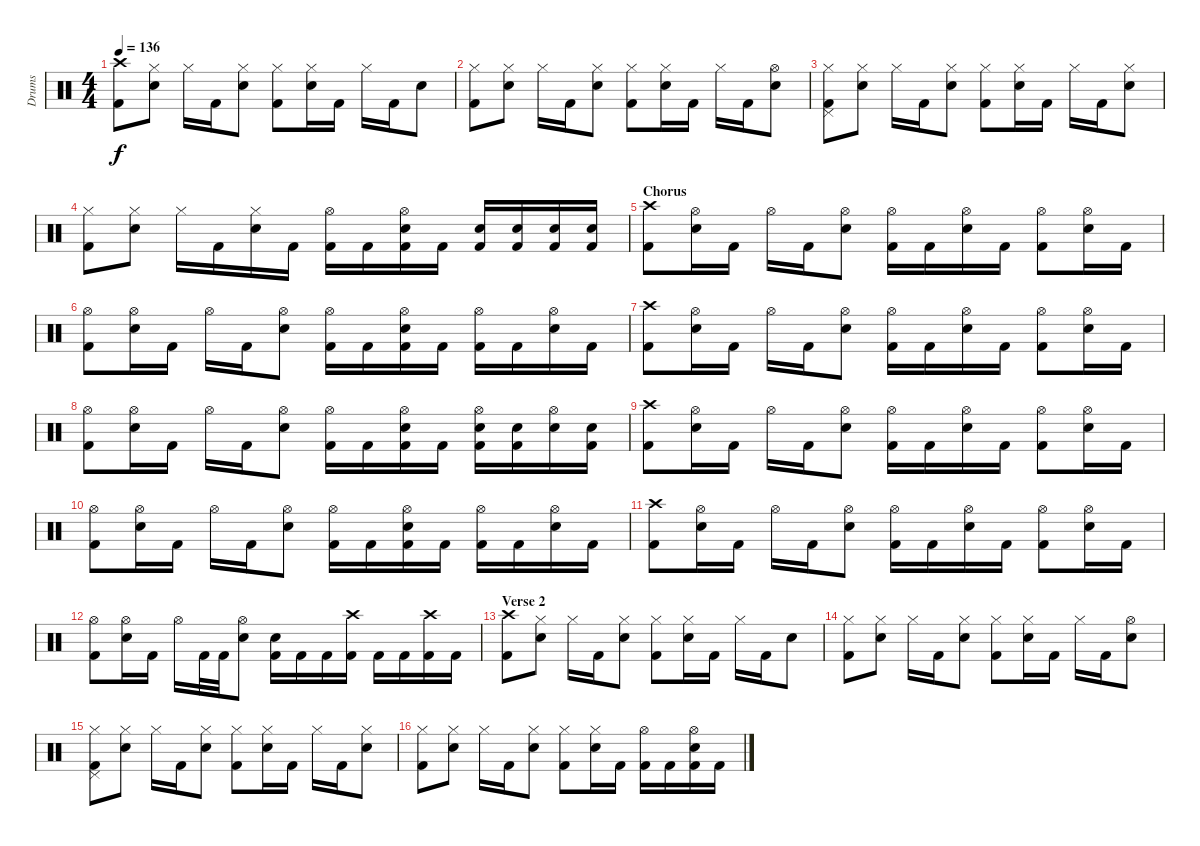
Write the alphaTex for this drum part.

\track ("Drums" "Drums") {instrument percussion}
\staff {score}
\articulation defaults
\ts (4 4)
\tempo 136
\clef neutral
\ks c
("Crash high (hit)" "Kick (hit) 2").8{dy f} ("Hi-Hat (closed)" "Snare (hit) 2").8 "Hi-Hat (closed)".16 "Kick (hit) 2".16 ("Hi-Hat (closed)" "Snare (hit) 2").8 ("Hi-Hat (closed)" "Kick (hit) 2").8 ("Hi-Hat (closed)" "Snare (hit) 2").16 "Kick (hit) 2".16 "Hi-Hat (closed)".16 "Kick (hit) 2".16 "Snare (hit) 2".8 |
("Hi-Hat (closed)" "Kick (hit) 2").8 ("Hi-Hat (closed)" "Snare (hit) 2").8 "Hi-Hat (closed)".16 "Kick (hit) 2".16 ("Hi-Hat (closed)" "Snare (hit) 2").8 ("Hi-Hat (closed)" "Kick (hit) 2").8 ("Hi-Hat (closed)" "Snare (hit) 2").16 "Kick (hit) 2".16 "Hi-Hat (closed)".16 "Kick (hit) 2".16 ("Hi-Hat (open)" "Snare (hit) 2").8 |
("Hi-Hat (closed)" "Pedal Hi-Hat (hit)" "Kick (hit) 2").8 ("Hi-Hat (closed)" "Snare (hit) 2").8 "Hi-Hat (closed)".16 "Kick (hit) 2".16 ("Hi-Hat (closed)" "Snare (hit) 2").8 ("Hi-Hat (closed)" "Kick (hit) 2").8 ("Hi-Hat (closed)" "Snare (hit) 2").16 "Kick (hit) 2".16 "Hi-Hat (closed)".16 "Kick (hit) 2".16 ("Hi-Hat (closed)" "Snare (hit) 2").8 |
("Hi-Hat (closed)" "Kick (hit) 2").8 ("Hi-Hat (closed)" "Snare (hit) 2").8 "Hi-Hat (closed)".16 "Kick (hit) 2".16 ("Hi-Hat (closed)" "Snare (hit) 2").16 "Kick (hit) 2".16 ("Hi-Hat (open)" "Kick (hit) 2").16 "Kick (hit) 2".16 ("Hi-Hat (open)" "Snare (hit) 2" "Kick (hit) 2").16 "Kick (hit) 2".16 ("Snare (hit) 2" "Kick (hit) 2").16 ("Snare (hit) 2" "Kick (hit) 2").16 ("Snare (hit) 2" "Kick (hit) 2").16 ("Snare (hit) 2" "Kick (hit) 2").16 |
\section ("" "Chorus")
("Crash high (hit)" "Kick (hit) 2").8 ("Hi-Hat (open)" "Snare (hit) 2").16 "Kick (hit) 2".16 "Hi-Hat (open)".16 "Kick (hit) 2".16 ("Hi-Hat (open)" "Snare (hit) 2").8 ("Hi-Hat (open)" "Kick (hit) 2").16 "Kick (hit) 2".16 ("Hi-Hat (open)" "Snare (hit) 2").16 "Kick (hit) 2".16 ("Hi-Hat (open)" "Kick (hit) 2").8 ("Hi-Hat (open)" "Snare (hit) 2").16 "Kick (hit) 2".16 |
("Hi-Hat (open)" "Kick (hit) 2").8 ("Hi-Hat (open)" "Snare (hit) 2").16 "Kick (hit) 2".16 "Hi-Hat (open)".16 "Kick (hit) 2".16 ("Hi-Hat (open)" "Snare (hit) 2").8 ("Hi-Hat (open)" "Kick (hit) 2").16 "Kick (hit) 2".16 ("Hi-Hat (open)" "Snare (hit) 2" "Kick (hit) 2").16 "Kick (hit) 2".16 ("Hi-Hat (open)" "Kick (hit) 2").16 "Kick (hit) 2".16 ("Hi-Hat (open)" "Snare (hit) 2").16 "Kick (hit) 2".16 |
("Crash high (hit)" "Kick (hit) 2").8 ("Hi-Hat (open)" "Snare (hit) 2").16 "Kick (hit) 2".16 "Hi-Hat (open)".16 "Kick (hit) 2".16 ("Hi-Hat (open)" "Snare (hit) 2").8 ("Hi-Hat (open)" "Kick (hit) 2").16 "Kick (hit) 2".16 ("Hi-Hat (open)" "Snare (hit) 2").16 "Kick (hit) 2".16 ("Hi-Hat (open)" "Kick (hit) 2").8 ("Hi-Hat (open)" "Snare (hit) 2").16 "Kick (hit) 2".16 |
("Hi-Hat (open)" "Kick (hit) 2").8 ("Hi-Hat (open)" "Snare (hit) 2").16 "Kick (hit) 2".16 "Hi-Hat (open)".16 "Kick (hit) 2".16 ("Hi-Hat (open)" "Snare (hit) 2").8 ("Hi-Hat (open)" "Kick (hit) 2").16 "Kick (hit) 2".16 ("Hi-Hat (open)" "Snare (hit) 2" "Kick (hit) 2").16 "Kick (hit) 2".16 ("Hi-Hat (open)" "Snare (hit) 2" "Kick (hit) 2").16 ("Snare (hit) 2" "Kick (hit) 2").16 ("Hi-Hat (open)" "Snare (hit) 2").16 ("Snare (hit) 2" "Kick (hit) 2").16 |
("Crash high (hit)" "Kick (hit) 2").8 ("Hi-Hat (open)" "Snare (hit) 2").16 "Kick (hit) 2".16 "Hi-Hat (open)".16 "Kick (hit) 2".16 ("Hi-Hat (open)" "Snare (hit) 2").8 ("Hi-Hat (open)" "Kick (hit) 2").16 "Kick (hit) 2".16 ("Hi-Hat (open)" "Snare (hit) 2").16 "Kick (hit) 2".16 ("Hi-Hat (open)" "Kick (hit) 2").8 ("Hi-Hat (open)" "Snare (hit) 2").16 "Kick (hit) 2".16 |
("Hi-Hat (open)" "Kick (hit) 2").8 ("Hi-Hat (open)" "Snare (hit) 2").16 "Kick (hit) 2".16 "Hi-Hat (open)".16 "Kick (hit) 2".16 ("Hi-Hat (open)" "Snare (hit) 2").8 ("Hi-Hat (open)" "Kick (hit) 2").16 "Kick (hit) 2".16 ("Hi-Hat (open)" "Snare (hit) 2" "Kick (hit) 2").16 "Kick (hit) 2".16 ("Hi-Hat (open)" "Kick (hit) 2").16 "Kick (hit) 2".16 ("Hi-Hat (open)" "Snare (hit) 2").16 "Kick (hit) 2".16 |
("Crash high (hit)" "Kick (hit) 2").8 ("Hi-Hat (open)" "Snare (hit) 2").16 "Kick (hit) 2".16 "Hi-Hat (open)".16 "Kick (hit) 2".16 ("Hi-Hat (open)" "Snare (hit) 2").8 ("Hi-Hat (open)" "Kick (hit) 2").16 "Kick (hit) 2".16 ("Hi-Hat (open)" "Snare (hit) 2").16 "Kick (hit) 2".16 ("Hi-Hat (open)" "Kick (hit) 2").8 ("Hi-Hat (open)" "Snare (hit) 2").16 "Kick (hit) 2".16 |
("Hi-Hat (open)" "Kick (hit) 2").8 ("Hi-Hat (open)" "Snare (hit) 2").16 "Kick (hit) 2".16 "Hi-Hat (open)".16 "Kick (hit) 2".32 "Kick (hit) 2".32 ("Hi-Hat (open)" "Snare (hit) 2").8 ("Snare (hit) 2" "Kick (hit) 2").16 "Kick (hit) 2".16 "Kick (hit) 2".16 ("Crash high (hit)" "Kick (hit) 2").16 "Kick (hit) 2".16 "Kick (hit) 2".16 ("Crash high (hit)" "Kick (hit) 2").16 "Kick (hit) 2".16 |
\section ("" "Verse 2")
("Crash high (hit)" "Kick (hit) 2").8 ("Hi-Hat (closed)" "Snare (hit) 2").8 "Hi-Hat (closed)".16 "Kick (hit) 2".16 ("Hi-Hat (closed)" "Snare (hit) 2").8 ("Hi-Hat (closed)" "Kick (hit) 2").8 ("Hi-Hat (closed)" "Snare (hit) 2").16 "Kick (hit) 2".16 "Hi-Hat (closed)".16 "Kick (hit) 2".16 "Snare (hit) 2".8 |
("Hi-Hat (closed)" "Kick (hit) 2").8 ("Hi-Hat (closed)" "Snare (hit) 2").8 "Hi-Hat (closed)".16 "Kick (hit) 2".16 ("Hi-Hat (closed)" "Snare (hit) 2").8 ("Hi-Hat (closed)" "Kick (hit) 2").8 ("Hi-Hat (closed)" "Snare (hit) 2").16 "Kick (hit) 2".16 "Hi-Hat (closed)".16 "Kick (hit) 2".16 ("Hi-Hat (open)" "Snare (hit) 2").8 |
("Hi-Hat (closed)" "Pedal Hi-Hat (hit)" "Kick (hit) 2").8 ("Hi-Hat (closed)" "Snare (hit) 2").8 "Hi-Hat (closed)".16 "Kick (hit) 2".16 ("Hi-Hat (closed)" "Snare (hit) 2").8 ("Hi-Hat (closed)" "Kick (hit) 2").8 ("Hi-Hat (closed)" "Snare (hit) 2").16 "Kick (hit) 2".16 "Hi-Hat (closed)".16 "Kick (hit) 2".16 ("Hi-Hat (closed)" "Snare (hit) 2").8 |
("Hi-Hat (closed)" "Kick (hit) 2").8 ("Hi-Hat (closed)" "Snare (hit) 2").8 "Hi-Hat (closed)".16 "Kick (hit) 2".16 ("Hi-Hat (closed)" "Snare (hit) 2").8 ("Hi-Hat (closed)" "Kick (hit) 2").8 ("Hi-Hat (closed)" "Snare (hit) 2").16 "Kick (hit) 2".16 ("Hi-Hat (open)" "Kick (hit) 2").16 "Kick (hit) 2".16 ("Hi-Hat (open)" "Snare (hit) 2" "Kick (hit) 2").16 "Kick (hit) 2".16
